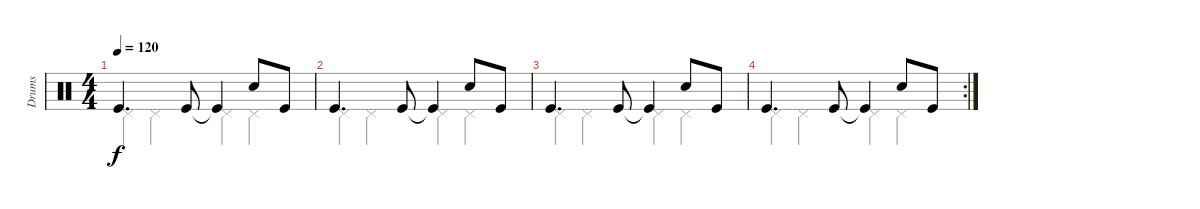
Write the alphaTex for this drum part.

\track ("Drums" "Drums") {instrument percussion}
\staff {score}
\articulation defaults
\voice
\ts (4 4)
\tempo 120
\clef neutral
\ks c "Kick (hit)".4{d dy f} "Kick (hit)".8 "Kick (hit)"{t}.4 "Snare (hit) 2".8 "Kick (hit)".8
|
"Kick (hit)".4{d} "Kick (hit)".8 "Kick (hit)"{t}.4 "Snare (hit) 2".8 "Kick (hit)".8 |
"Kick (hit)".4{d} "Kick (hit)".8 "Kick (hit)"{t}.4 "Snare (hit) 2".8 "Kick (hit)".8 |
\rc 2 "Kick (hit)".4{d} "Kick (hit)".8 "Kick (hit)"{t}.4 "Snare (hit) 2".8 "Kick (hit)".8
\voice
\clef neutral
\ottava regular
\simile none
\ks c "Pedal Hi-Hat (hit)".4{dy f} "Pedal Hi-Hat (hit)".4 "Pedal Hi-Hat (hit)".4 "Pedal Hi-Hat (hit)".4
|
"Pedal Hi-Hat (hit)".4 "Pedal Hi-Hat (hit)".4 "Pedal Hi-Hat (hit)".4 "Pedal Hi-Hat (hit)".4 |
"Pedal Hi-Hat (hit)".4 "Pedal Hi-Hat (hit)".4 "Pedal Hi-Hat (hit)".4 "Pedal Hi-Hat (hit)".4 |
"Pedal Hi-Hat (hit)".4 "Pedal Hi-Hat (hit)".4 "Pedal Hi-Hat (hit)".4 "Pedal Hi-Hat (hit)".4
